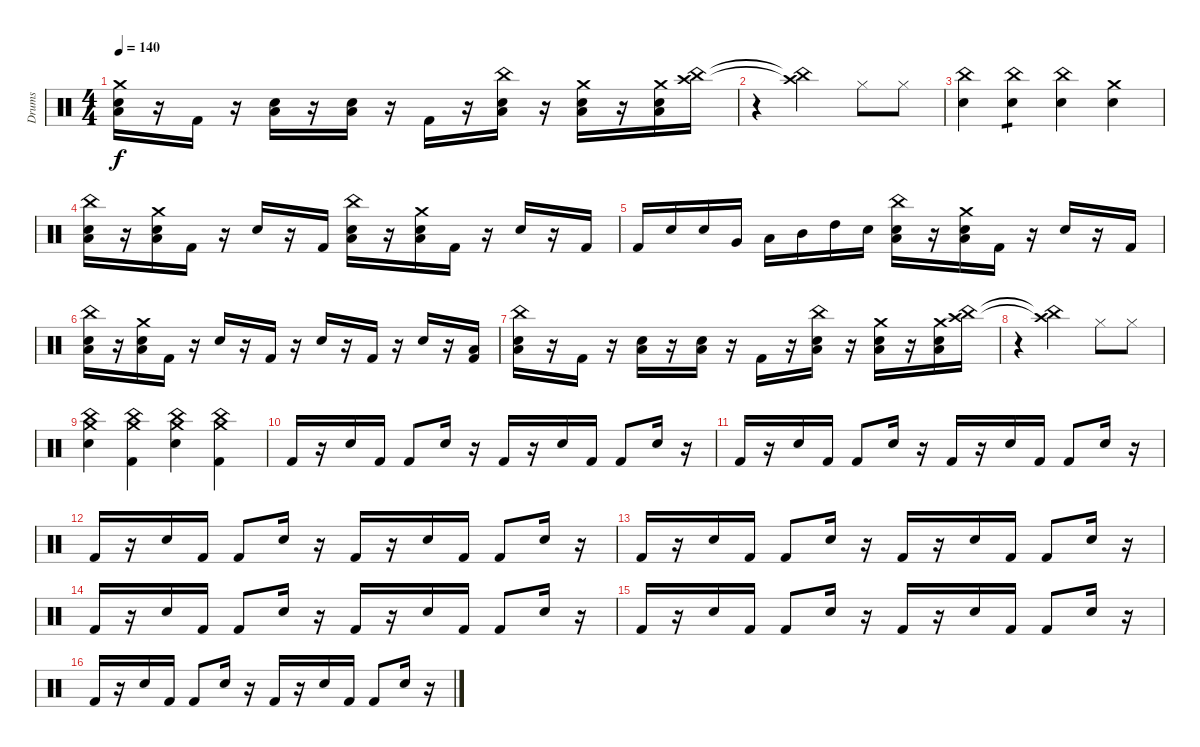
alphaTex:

\track ("Drums" "Drums") {instrument percussion}
\staff {score}
\articulation defaults
\ts (4 4)
\tempo 140
\clef neutral
\ks c
("Snare (hit) 2" "Low Floor Tom (hit)" "Crash medium (hit)").16{dy f} r.16 "Kick (hit) 2".16 r.16 ("Snare (hit) 2" "Low Floor Tom (hit)").16 r.16 ("Snare (hit) 2" "Low Floor Tom (hit)").16 r.16 "Kick (hit) 2".16 r.16 ("Snare (hit) 2" "Low Floor Tom (hit)" "China (hit)").16 r.16 ("Snare (hit) 2" "Low Floor Tom (hit)" "Crash medium (hit)").16 r.16 ("Snare (hit) 2" "Low Floor Tom (hit)" "Crash medium (hit)").16 ("Crash high (hit)" "China (hit)").16 |
r.4 ("Crash high (hit)"{t} "China (hit)"{t}).2 "Hi-Hat (closed)".8 "Hi-Hat (closed)".8 |
("Electric Snare (hit)" "China (hit)").4 ("Electric Snare (hit)" "China (hit)").4{tp 1} ("Electric Snare (hit)" "China (hit)").4 ("Electric Snare (hit)" "Crash medium (hit)").4 |
("Snare (hit) 2" "Low Floor Tom (hit)" "China (hit)").16 r.16 ("Snare (hit) 2" "Low Floor Tom (hit)" "Crash medium (hit)").16 "Kick (hit) 2".16 r.16 "Snare (hit) 2".16 r.16 "Kick (hit) 2".16 ("Snare (hit) 2" "Low Floor Tom (hit)" "China (hit)").16 r.16 ("Snare (hit) 2" "Low Floor Tom (hit)" "Crash medium (hit)").16 "Kick (hit) 2".16 r.16 "Snare (hit) 2".16 r.16 "Kick (hit) 2".16 |
"Kick (hit) 2".16 "Snare (hit) 2".16 "Electric Snare (hit)".16 "Very Low Tom (hit)".16 "Low Tom (hit)".16 "Mid Tom (hit)".16 "High Tom (hit)".16 "Snare (hit) 2".16 ("Snare (hit) 2" "Low Floor Tom (hit)" "China (hit)").16 r.16 ("Snare (hit) 2" "Low Floor Tom (hit)" "Crash medium (hit)").16 "Kick (hit) 2".16 r.16 "Snare (hit) 2".16 r.16 "Kick (hit) 2".16 |
("Snare (hit) 2" "Low Floor Tom (hit)" "China (hit)").16 r.16 ("Snare (hit) 2" "Low Floor Tom (hit)" "Crash medium (hit)").16 "Kick (hit) 2".16 r.16 "Snare (hit) 2".16 r.16 "Kick (hit) 2".16 r.16 "Snare (hit) 2".16 r.16 "Kick (hit) 2".16 r.16 "Snare (hit) 2".16 r.16 ("Kick (hit) 2" "Low Floor Tom (hit)").16 |
("Snare (hit) 2" "Low Floor Tom (hit)" "China (hit)").16 r.16 "Kick (hit) 2".16 r.16 ("Snare (hit) 2" "Low Floor Tom (hit)").16 r.16 ("Snare (hit) 2" "Low Floor Tom (hit)").16 r.16 "Kick (hit) 2".16 r.16 ("Snare (hit) 2" "Low Floor Tom (hit)" "China (hit)").16 r.16 ("Snare (hit) 2" "Low Floor Tom (hit)" "Crash medium (hit)").16 r.16 ("Snare (hit) 2" "Low Floor Tom (hit)" "Crash medium (hit)").16 ("Crash high (hit)" "China (hit)").16 |
r.4 ("Crash high (hit)"{t} "China (hit)"{t}).2 "Hi-Hat (closed)".8 "Hi-Hat (closed)".8 |
("Crash medium (hit)" "China (hit)" "Snare (hit) 2").4 ("Crash medium (hit)" "China (hit)" "Kick (hit) 2").4 ("Crash medium (hit)" "China (hit)" "Snare (hit) 2").4 ("Crash medium (hit)" "China (hit)" "Kick (hit) 2").4 |
"Kick (hit) 2".16 r.16 "Snare (hit) 2".16 "Kick (hit) 2".16 "Kick (hit) 2".8 "Snare (hit) 2".16 r.16 "Kick (hit) 2".16 r.16 "Snare (hit) 2".16 "Kick (hit) 2".16 "Kick (hit) 2".8 "Snare (hit) 2".16 r.16 |
"Kick (hit) 2".16 r.16 "Snare (hit) 2".16 "Kick (hit) 2".16 "Kick (hit) 2".8 "Snare (hit) 2".16 r.16 "Kick (hit) 2".16 r.16 "Snare (hit) 2".16 "Kick (hit) 2".16 "Kick (hit) 2".8 "Snare (hit) 2".16 r.16 |
"Kick (hit) 2".16 r.16 "Snare (hit) 2".16 "Kick (hit) 2".16 "Kick (hit) 2".8 "Snare (hit) 2".16 r.16 "Kick (hit) 2".16 r.16 "Snare (hit) 2".16 "Kick (hit) 2".16 "Kick (hit) 2".8 "Snare (hit) 2".16 r.16 |
"Kick (hit) 2".16 r.16 "Snare (hit) 2".16 "Kick (hit) 2".16 "Kick (hit) 2".8 "Snare (hit) 2".16 r.16 "Kick (hit) 2".16 r.16 "Snare (hit) 2".16 "Kick (hit) 2".16 "Kick (hit) 2".8 "Snare (hit) 2".16 r.16 |
"Kick (hit) 2".16 r.16 "Snare (hit) 2".16 "Kick (hit) 2".16 "Kick (hit) 2".8 "Snare (hit) 2".16 r.16 "Kick (hit) 2".16 r.16 "Snare (hit) 2".16 "Kick (hit) 2".16 "Kick (hit) 2".8 "Snare (hit) 2".16 r.16 |
"Kick (hit) 2".16 r.16 "Snare (hit) 2".16 "Kick (hit) 2".16 "Kick (hit) 2".8 "Snare (hit) 2".16 r.16 "Kick (hit) 2".16 r.16 "Snare (hit) 2".16 "Kick (hit) 2".16 "Kick (hit) 2".8 "Snare (hit) 2".16 r.16 |
"Kick (hit) 2".16 r.16 "Snare (hit) 2".16 "Kick (hit) 2".16 "Kick (hit) 2".8 "Snare (hit) 2".16 r.16 "Kick (hit) 2".16 r.16 "Snare (hit) 2".16 "Kick (hit) 2".16 "Kick (hit) 2".8 "Snare (hit) 2".16 r.16
